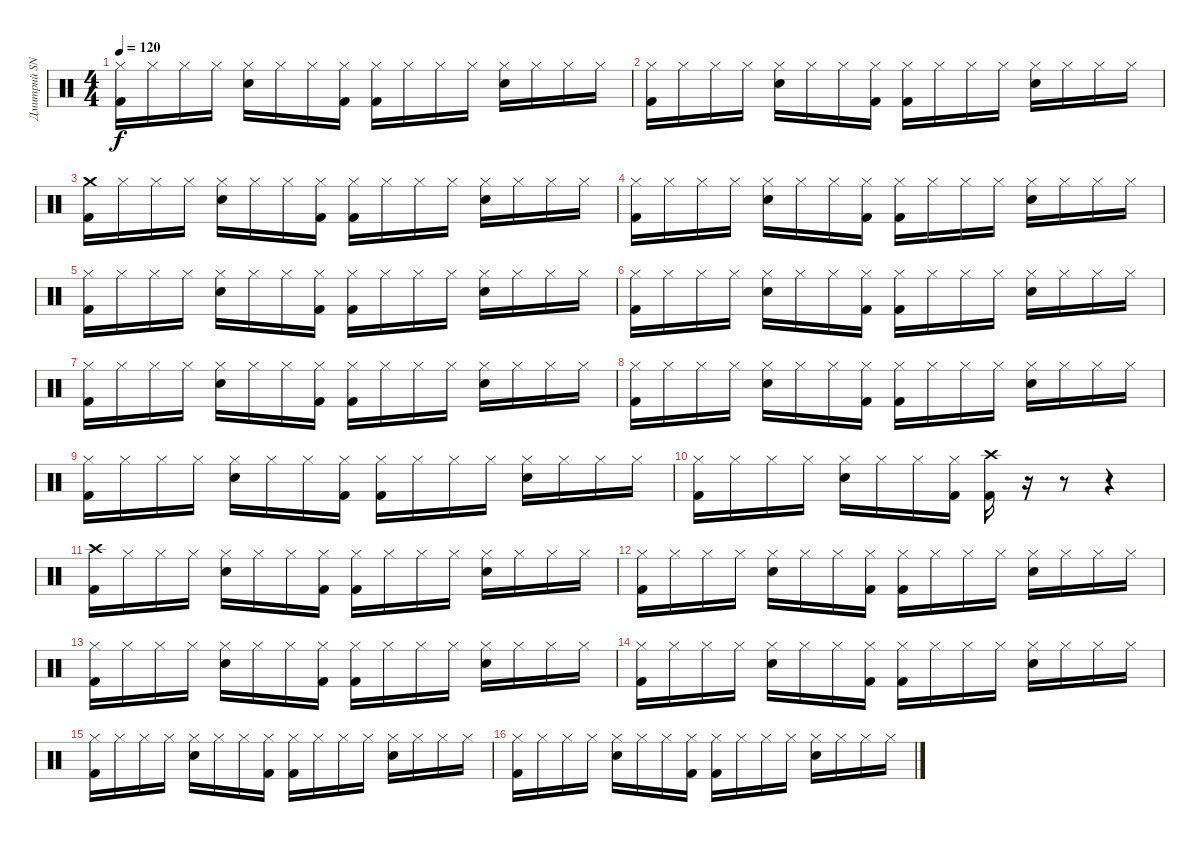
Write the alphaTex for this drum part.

\track ("Дмитрий SNAKE Хакимов" "Дмитрий SN") {instrument percussion}
\staff {score}
\articulation defaults
\ts (4 4)
\tempo 120
\clef neutral
\ks c
("Hi-Hat (closed)" "Kick (hit) 2").16{dy f} "Hi-Hat (closed)".16 "Hi-Hat (closed)".16 "Hi-Hat (closed)".16 ("Hi-Hat (closed)" "Snare (hit) 2").16 "Hi-Hat (closed)".16 "Hi-Hat (closed)".16 ("Hi-Hat (closed)" "Kick (hit) 2").16 ("Hi-Hat (closed)" "Kick (hit) 2").16 "Hi-Hat (closed)".16 "Hi-Hat (closed)".16 "Hi-Hat (closed)".16 ("Hi-Hat (closed)" "Snare (hit) 2").16 "Hi-Hat (closed)".16 "Hi-Hat (closed)".16 "Hi-Hat (closed)".16 |
("Hi-Hat (closed)" "Kick (hit) 2").16 "Hi-Hat (closed)".16 "Hi-Hat (closed)".16 "Hi-Hat (closed)".16 ("Hi-Hat (closed)" "Snare (hit) 2").16 "Hi-Hat (closed)".16 "Hi-Hat (closed)".16 ("Hi-Hat (closed)" "Kick (hit) 2").16 ("Hi-Hat (closed)" "Kick (hit) 2").16 "Hi-Hat (closed)".16 "Hi-Hat (closed)".16 "Hi-Hat (closed)".16 ("Hi-Hat (closed)" "Snare (hit) 2").16 "Hi-Hat (closed)".16 "Hi-Hat (closed)".16 "Hi-Hat (closed)".16 |
("Crash medium (hit)" "Kick (hit) 2").16 "Hi-Hat (closed)".16 "Hi-Hat (closed)".16 "Hi-Hat (closed)".16 ("Hi-Hat (closed)" "Snare (hit) 2").16 "Hi-Hat (closed)".16 "Hi-Hat (closed)".16 ("Hi-Hat (closed)" "Kick (hit) 2").16 ("Hi-Hat (closed)" "Kick (hit) 2").16 "Hi-Hat (closed)".16 "Hi-Hat (closed)".16 "Hi-Hat (closed)".16 ("Hi-Hat (closed)" "Snare (hit) 2").16 "Hi-Hat (closed)".16 "Hi-Hat (closed)".16 "Hi-Hat (closed)".16 |
("Hi-Hat (closed)" "Kick (hit) 2").16 "Hi-Hat (closed)".16 "Hi-Hat (closed)".16 "Hi-Hat (closed)".16 ("Hi-Hat (closed)" "Snare (hit) 2").16 "Hi-Hat (closed)".16 "Hi-Hat (closed)".16 ("Hi-Hat (closed)" "Kick (hit) 2").16 ("Hi-Hat (closed)" "Kick (hit) 2").16 "Hi-Hat (closed)".16 "Hi-Hat (closed)".16 "Hi-Hat (closed)".16 ("Hi-Hat (closed)" "Snare (hit) 2").16 "Hi-Hat (closed)".16 "Hi-Hat (closed)".16 "Hi-Hat (closed)".16 |
("Hi-Hat (closed)" "Kick (hit) 2").16 "Hi-Hat (closed)".16 "Hi-Hat (closed)".16 "Hi-Hat (closed)".16 ("Hi-Hat (closed)" "Snare (hit) 2").16 "Hi-Hat (closed)".16 "Hi-Hat (closed)".16 ("Hi-Hat (closed)" "Kick (hit) 2").16 ("Hi-Hat (closed)" "Kick (hit) 2").16 "Hi-Hat (closed)".16 "Hi-Hat (closed)".16 "Hi-Hat (closed)".16 ("Hi-Hat (closed)" "Snare (hit) 2").16 "Hi-Hat (closed)".16 "Hi-Hat (closed)".16 "Hi-Hat (closed)".16 |
("Hi-Hat (closed)" "Kick (hit) 2").16 "Hi-Hat (closed)".16 "Hi-Hat (closed)".16 "Hi-Hat (closed)".16 ("Hi-Hat (closed)" "Snare (hit) 2").16 "Hi-Hat (closed)".16 "Hi-Hat (closed)".16 ("Hi-Hat (closed)" "Kick (hit) 2").16 ("Hi-Hat (closed)" "Kick (hit) 2").16 "Hi-Hat (closed)".16 "Hi-Hat (closed)".16 "Hi-Hat (closed)".16 ("Hi-Hat (closed)" "Snare (hit) 2").16 "Hi-Hat (closed)".16 "Hi-Hat (closed)".16 "Hi-Hat (closed)".16 |
("Hi-Hat (closed)" "Kick (hit) 2").16 "Hi-Hat (closed)".16 "Hi-Hat (closed)".16 "Hi-Hat (closed)".16 ("Hi-Hat (closed)" "Snare (hit) 2").16 "Hi-Hat (closed)".16 "Hi-Hat (closed)".16 ("Hi-Hat (closed)" "Kick (hit) 2").16 ("Hi-Hat (closed)" "Kick (hit) 2").16 "Hi-Hat (closed)".16 "Hi-Hat (closed)".16 "Hi-Hat (closed)".16 ("Hi-Hat (closed)" "Snare (hit) 2").16 "Hi-Hat (closed)".16 "Hi-Hat (closed)".16 "Hi-Hat (closed)".16 |
("Hi-Hat (closed)" "Kick (hit) 2").16 "Hi-Hat (closed)".16 "Hi-Hat (closed)".16 "Hi-Hat (closed)".16 ("Hi-Hat (closed)" "Snare (hit) 2").16 "Hi-Hat (closed)".16 "Hi-Hat (closed)".16 ("Hi-Hat (closed)" "Kick (hit) 2").16 ("Hi-Hat (closed)" "Kick (hit) 2").16 "Hi-Hat (closed)".16 "Hi-Hat (closed)".16 "Hi-Hat (closed)".16 ("Hi-Hat (closed)" "Snare (hit) 2").16 "Hi-Hat (closed)".16 "Hi-Hat (closed)".16 "Hi-Hat (closed)".16 |
("Hi-Hat (closed)" "Kick (hit) 2").16 "Hi-Hat (closed)".16 "Hi-Hat (closed)".16 "Hi-Hat (closed)".16 ("Hi-Hat (closed)" "Snare (hit) 2").16 "Hi-Hat (closed)".16 "Hi-Hat (closed)".16 ("Hi-Hat (closed)" "Kick (hit) 2").16 ("Hi-Hat (closed)" "Kick (hit) 2").16 "Hi-Hat (closed)".16 "Hi-Hat (closed)".16 "Hi-Hat (closed)".16 ("Hi-Hat (closed)" "Snare (hit) 2").16 "Hi-Hat (closed)".16 "Hi-Hat (closed)".16 "Hi-Hat (closed)".16 |
("Hi-Hat (closed)" "Kick (hit) 2").16 "Hi-Hat (closed)".16 "Hi-Hat (closed)".16 "Hi-Hat (closed)".16 ("Hi-Hat (closed)" "Snare (hit) 2").16 "Hi-Hat (closed)".16 "Hi-Hat (closed)".16 ("Hi-Hat (closed)" "Kick (hit) 2").16 ("Crash high (hit)" "Kick (hit) 2").16 r.16 r.8 r.4 |
("Crash high (hit)" "Kick (hit) 2").16 "Hi-Hat (closed)".16 "Hi-Hat (closed)".16 "Hi-Hat (closed)".16 ("Hi-Hat (closed)" "Snare (hit) 2").16 "Hi-Hat (closed)".16 "Hi-Hat (closed)".16 ("Hi-Hat (closed)" "Kick (hit) 2").16 ("Hi-Hat (closed)" "Kick (hit) 2").16 "Hi-Hat (closed)".16 "Hi-Hat (closed)".16 "Hi-Hat (closed)".16 ("Hi-Hat (closed)" "Snare (hit) 2").16 "Hi-Hat (closed)".16 "Hi-Hat (closed)".16 "Hi-Hat (closed)".16 |
("Hi-Hat (closed)" "Kick (hit) 2").16 "Hi-Hat (closed)".16 "Hi-Hat (closed)".16 "Hi-Hat (closed)".16 ("Hi-Hat (closed)" "Snare (hit) 2").16 "Hi-Hat (closed)".16 "Hi-Hat (closed)".16 ("Hi-Hat (closed)" "Kick (hit) 2").16 ("Hi-Hat (closed)" "Kick (hit) 2").16 "Hi-Hat (closed)".16 "Hi-Hat (closed)".16 "Hi-Hat (closed)".16 ("Hi-Hat (closed)" "Snare (hit) 2").16 "Hi-Hat (closed)".16 "Hi-Hat (closed)".16 "Hi-Hat (closed)".16 |
("Hi-Hat (closed)" "Kick (hit) 2").16 "Hi-Hat (closed)".16 "Hi-Hat (closed)".16 "Hi-Hat (closed)".16 ("Hi-Hat (closed)" "Snare (hit) 2").16 "Hi-Hat (closed)".16 "Hi-Hat (closed)".16 ("Hi-Hat (closed)" "Kick (hit) 2").16 ("Hi-Hat (closed)" "Kick (hit) 2").16 "Hi-Hat (closed)".16 "Hi-Hat (closed)".16 "Hi-Hat (closed)".16 ("Hi-Hat (closed)" "Snare (hit) 2").16 "Hi-Hat (closed)".16 "Hi-Hat (closed)".16 "Hi-Hat (closed)".16 |
("Hi-Hat (closed)" "Kick (hit) 2").16 "Hi-Hat (closed)".16 "Hi-Hat (closed)".16 "Hi-Hat (closed)".16 ("Hi-Hat (closed)" "Snare (hit) 2").16 "Hi-Hat (closed)".16 "Hi-Hat (closed)".16 ("Hi-Hat (closed)" "Kick (hit) 2").16 ("Hi-Hat (closed)" "Kick (hit) 2").16 "Hi-Hat (closed)".16 "Hi-Hat (closed)".16 "Hi-Hat (closed)".16 ("Hi-Hat (closed)" "Snare (hit) 2").16 "Hi-Hat (closed)".16 "Hi-Hat (closed)".16 "Hi-Hat (closed)".16 |
("Hi-Hat (closed)" "Kick (hit) 2").16 "Hi-Hat (closed)".16 "Hi-Hat (closed)".16 "Hi-Hat (closed)".16 ("Hi-Hat (closed)" "Snare (hit) 2").16 "Hi-Hat (closed)".16 "Hi-Hat (closed)".16 ("Hi-Hat (closed)" "Kick (hit) 2").16 ("Hi-Hat (closed)" "Kick (hit) 2").16 "Hi-Hat (closed)".16 "Hi-Hat (closed)".16 "Hi-Hat (closed)".16 ("Hi-Hat (closed)" "Snare (hit) 2").16 "Hi-Hat (closed)".16 "Hi-Hat (closed)".16 "Hi-Hat (closed)".16 |
("Hi-Hat (closed)" "Kick (hit) 2").16 "Hi-Hat (closed)".16 "Hi-Hat (closed)".16 "Hi-Hat (closed)".16 ("Hi-Hat (closed)" "Snare (hit) 2").16 "Hi-Hat (closed)".16 "Hi-Hat (closed)".16 ("Hi-Hat (closed)" "Kick (hit) 2").16 ("Hi-Hat (closed)" "Kick (hit) 2").16 "Hi-Hat (closed)".16 "Hi-Hat (closed)".16 "Hi-Hat (closed)".16 ("Hi-Hat (closed)" "Snare (hit) 2").16 "Hi-Hat (closed)".16 "Hi-Hat (closed)".16 "Hi-Hat (closed)".16
